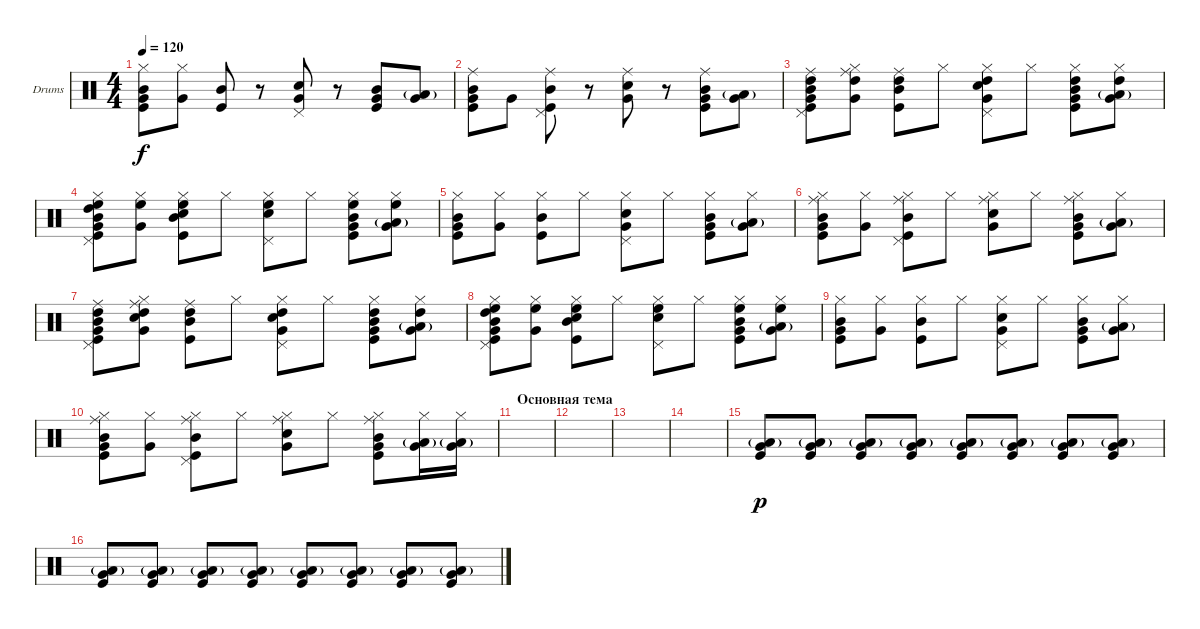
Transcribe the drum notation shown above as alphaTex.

\defaultSystemsLayout 4
\bracketExtendMode groupsimilarinstruments
\firstSystemTrackNameOrientation horizontal
\otherSystemsTrackNameOrientation horizontal
\track ("Drumkit" "Drums") {instrument percussion}
\staff {score}
\articulation defaults
\ts (4 4)
\tempo 120
\clef neutral
\ks c
("Mid Tom (hit)" "Very Low Tom (hit)" "Kick (hit)" "Hi-Hat (closed)").8{dy f} ("Very Low Tom (hit)" "Hi-Hat (closed)").8 ("Mid Tom (hit)" "Kick (hit)").8 r.8 ("Very Low Tom (hit)" "Snare (hit) 2" "Pedal Hi-Hat (hit)").8 r.8 ("Mid Tom (hit)" "Very Low Tom (hit)" "Kick (hit)").8 ("Low Tom (hit)"{g} "Very Low Tom (hit)").8 |
("Mid Tom (hit)" "Very Low Tom (hit)" "Kick (hit)" "Ride (middle)").8 "Very Low Tom (hit)".8 ("Mid Tom (hit)" "Kick (hit)" "Pedal Hi-Hat (hit)" "Ride (middle)").8 r.8 ("Very Low Tom (hit)" "Snare (hit) 2" "Ride (middle)").8 r.8 ("Mid Tom (hit)" "Very Low Tom (hit)" "Kick (hit)" "Ride (middle)").8 ("Low Tom (hit)"{g} "Very Low Tom (hit)").8 |
("Mid Tom (hit)" "Very Low Tom (hit)" "Kick (hit)" "Pedal Hi-Hat (hit)" "Ride (middle)" "High Tom (hit)").8 ("Very Low Tom (hit)" "Ride (middle)" "High Tom (hit)" "Hi-Hat (closed)").8 ("Mid Tom (hit)" "Kick (hit)" "Ride (middle)" "High Tom (hit)").8 "Hi-Hat (closed)".8 ("Very Low Tom (hit)" "Snare (hit) 2" "Pedal Hi-Hat (hit)" "Hi-Hat (closed)" "High Tom (hit)").8 "Hi-Hat (closed)".8 ("Mid Tom (hit)" "Very Low Tom (hit)" "Kick (hit)" "Hi-Hat (closed)" "High Tom (hit)").8 ("Low Tom (hit)"{g} "Very Low Tom (hit)" "Hi-Hat (closed)" "High Tom (hit)").8 |
("Mid Tom (hit)" "Very Low Tom (hit)" "Kick (hit)" "Hi-Hat (closed)" "Pedal Hi-Hat (hit)" "High Tom (hit)" "High Floor Tom (hit)").8 ("Very Low Tom (hit)" "Hi-Hat (closed)" "High Floor Tom (hit)").8 ("Mid Tom (hit)" "Kick (hit)" "Hi-Hat (closed)" "Snare (hit) 2" "High Floor Tom (hit)").8 "Hi-Hat (closed)".8 ("Snare (hit) 2" "Pedal Hi-Hat (hit)" "Hi-Hat (closed)" "High Floor Tom (hit)").8 "Hi-Hat (closed)".8 ("Mid Tom (hit)" "Very Low Tom (hit)" "Kick (hit)" "Hi-Hat (closed)" "High Floor Tom (hit)").8 ("Low Tom (hit)"{g} "Very Low Tom (hit)" "Hi-Hat (closed)" "High Floor Tom (hit)").8 |
("Mid Tom (hit)" "Very Low Tom (hit)" "Kick (hit)" "Hi-Hat (closed)").8 ("Very Low Tom (hit)" "Hi-Hat (closed)").8 ("Mid Tom (hit)" "Kick (hit)" "Hi-Hat (closed)").8 "Hi-Hat (closed)".8 ("Very Low Tom (hit)" "Snare (hit) 2" "Pedal Hi-Hat (hit)" "Hi-Hat (closed)").8 "Hi-Hat (closed)".8 ("Mid Tom (hit)" "Very Low Tom (hit)" "Kick (hit)" "Hi-Hat (closed)").8 ("Low Tom (hit)"{g} "Very Low Tom (hit)" "Hi-Hat (closed)").8 |
("Mid Tom (hit)" "Very Low Tom (hit)" "Kick (hit)" "Ride (middle)" "Hi-Hat (closed)").8 ("Very Low Tom (hit)" "Hi-Hat (closed)").8 ("Mid Tom (hit)" "Kick (hit)" "Pedal Hi-Hat (hit)" "Ride (middle)" "Hi-Hat (closed)").8 "Hi-Hat (closed)".8 ("Very Low Tom (hit)" "Snare (hit) 2" "Ride (middle)" "Hi-Hat (closed)").8 "Hi-Hat (closed)".8 ("Mid Tom (hit)" "Very Low Tom (hit)" "Kick (hit)" "Ride (middle)" "Hi-Hat (closed)").8 ("Low Tom (hit)"{g} "Very Low Tom (hit)" "Hi-Hat (closed)").8 |
("Mid Tom (hit)" "Very Low Tom (hit)" "Kick (hit)" "Pedal Hi-Hat (hit)" "Ride (middle)" "High Tom (hit)").8 ("Very Low Tom (hit)" "Ride (middle)" "High Tom (hit)" "Hi-Hat (closed)" "Snare (hit) 2").8 ("Mid Tom (hit)" "Kick (hit)" "Ride (middle)" "High Tom (hit)").8 "Hi-Hat (closed)".8 ("Very Low Tom (hit)" "Snare (hit) 2" "Pedal Hi-Hat (hit)" "Hi-Hat (closed)" "High Tom (hit)").8 "Hi-Hat (closed)".8 ("Mid Tom (hit)" "Very Low Tom (hit)" "Kick (hit)" "Hi-Hat (closed)" "High Tom (hit)").8 ("Low Tom (hit)"{g} "Very Low Tom (hit)" "Hi-Hat (closed)" "High Tom (hit)").8 |
("Mid Tom (hit)" "Very Low Tom (hit)" "Kick (hit)" "Hi-Hat (closed)" "Pedal Hi-Hat (hit)" "High Tom (hit)" "High Floor Tom (hit)").8 ("Very Low Tom (hit)" "Hi-Hat (closed)" "High Floor Tom (hit)").8 ("Mid Tom (hit)" "Kick (hit)" "Hi-Hat (closed)" "Snare (hit) 2" "High Floor Tom (hit)").8 "Hi-Hat (closed)".8 ("Snare (hit) 2" "Pedal Hi-Hat (hit)" "Hi-Hat (closed)" "High Floor Tom (hit)").8 "Hi-Hat (closed)".8 ("Mid Tom (hit)" "Very Low Tom (hit)" "Kick (hit)" "Hi-Hat (closed)" "High Floor Tom (hit)").8 ("Low Tom (hit)"{g} "Very Low Tom (hit)" "Hi-Hat (closed)" "High Floor Tom (hit)").8 |
("Mid Tom (hit)" "Very Low Tom (hit)" "Kick (hit)" "Hi-Hat (closed)").8 ("Very Low Tom (hit)" "Hi-Hat (closed)").8 ("Mid Tom (hit)" "Kick (hit)" "Hi-Hat (closed)").8 "Hi-Hat (closed)".8 ("Very Low Tom (hit)" "Snare (hit) 2" "Pedal Hi-Hat (hit)" "Hi-Hat (closed)").8 "Hi-Hat (closed)".8 ("Mid Tom (hit)" "Very Low Tom (hit)" "Kick (hit)" "Hi-Hat (closed)").8 ("Low Tom (hit)"{g} "Very Low Tom (hit)" "Hi-Hat (closed)").8 |
("Mid Tom (hit)" "Very Low Tom (hit)" "Kick (hit)" "Ride (middle)" "Hi-Hat (closed)").8 ("Very Low Tom (hit)" "Hi-Hat (closed)").8 ("Mid Tom (hit)" "Kick (hit)" "Pedal Hi-Hat (hit)" "Ride (middle)" "Hi-Hat (closed)").8 "Hi-Hat (closed)".8 ("Very Low Tom (hit)" "Snare (hit) 2" "Ride (middle)" "Hi-Hat (closed)").8 "Hi-Hat (closed)".8 ("Mid Tom (hit)" "Very Low Tom (hit)" "Kick (hit)" "Ride (middle)" "Hi-Hat (closed)").8 ("Low Tom (hit)"{g} "Very Low Tom (hit)" "Hi-Hat (closed)").16 ("Low Tom (hit)"{g} "Very Low Tom (hit)" "Hi-Hat (closed)").16 |
\section ("" "Основная тема")
|
|
|
|
("Very Low Tom (hit)" "Low Tom (hit)"{g} "Kick (hit)").8{dy p} ("Very Low Tom (hit)" "Low Tom (hit)"{g} "Kick (hit)").8 ("Very Low Tom (hit)" "Low Tom (hit)"{g} "Kick (hit)").8 ("Very Low Tom (hit)" "Low Tom (hit)"{g} "Kick (hit)").8 ("Very Low Tom (hit)" "Low Tom (hit)"{g} "Kick (hit)").8 ("Very Low Tom (hit)" "Low Tom (hit)"{g} "Kick (hit)").8 ("Very Low Tom (hit)" "Low Tom (hit)"{g} "Kick (hit)").8 ("Very Low Tom (hit)" "Low Tom (hit)"{g} "Kick (hit)").8 |
("Very Low Tom (hit)" "Low Tom (hit)"{g} "Kick (hit)").8 ("Very Low Tom (hit)" "Low Tom (hit)"{g} "Kick (hit)").8 ("Very Low Tom (hit)" "Low Tom (hit)"{g} "Kick (hit)").8 ("Very Low Tom (hit)" "Low Tom (hit)"{g} "Kick (hit)").8 ("Very Low Tom (hit)" "Low Tom (hit)"{g} "Kick (hit)").8 ("Very Low Tom (hit)" "Low Tom (hit)"{g} "Kick (hit)").8 ("Very Low Tom (hit)" "Low Tom (hit)"{g} "Kick (hit)").8 ("Very Low Tom (hit)" "Low Tom (hit)"{g} "Kick (hit)").8
